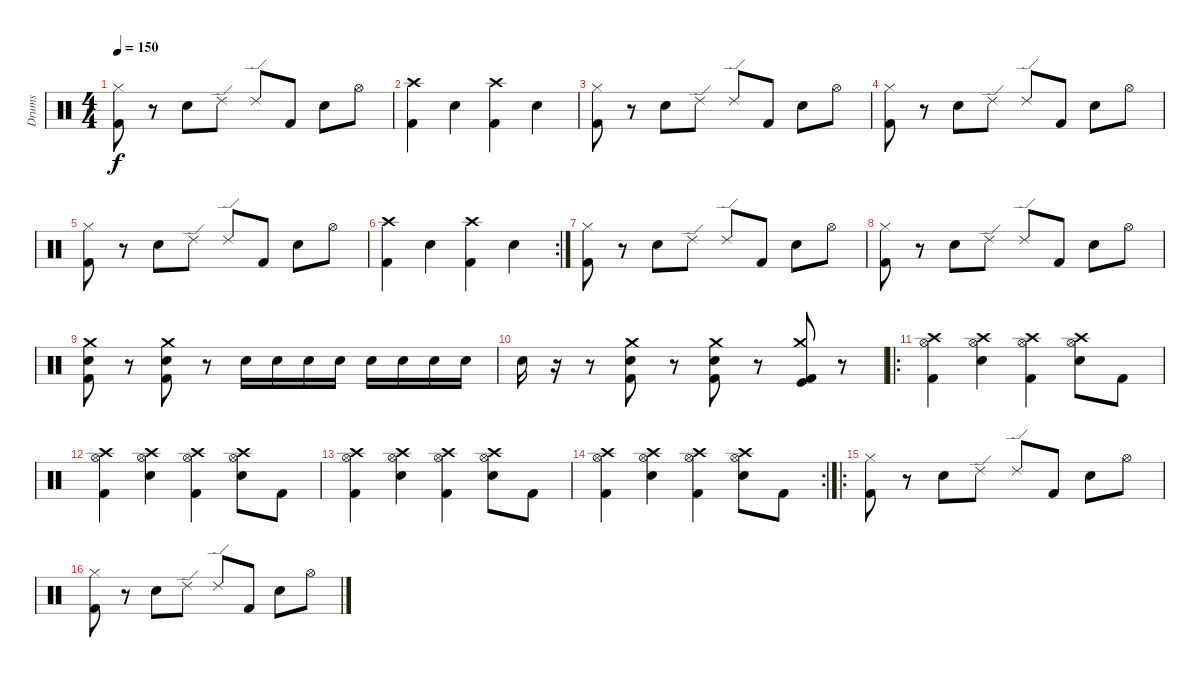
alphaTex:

\track ("Drums" "Drums") {instrument percussion}
\staff {score}
\articulation defaults
\ts (4 4)
\tempo 150
\clef neutral
\ks c
("Hi-Hat (closed)" "Kick (hit) 2").8{dy f} r.8 "Electric Snare (hit)".8 "Ride (edge) 2".8 "Ride (edge) 2".8 "Kick (hit) 2".8 "Electric Snare (hit)".8 "Hi-Hat (open)".8 |
("Crash high (hit)" "Kick (hit) 2").4 "Electric Snare (hit)".4 ("Crash high (hit)" "Kick (hit) 2").4 "Electric Snare (hit)".4 |
("Hi-Hat (closed)" "Kick (hit) 2").8 r.8 "Electric Snare (hit)".8 "Ride (edge) 2".8 "Ride (edge) 2".8 "Kick (hit) 2".8 "Electric Snare (hit)".8 "Hi-Hat (open)".8 |
("Hi-Hat (closed)" "Kick (hit) 2").8 r.8 "Electric Snare (hit)".8 "Ride (edge) 2".8 "Ride (edge) 2".8 "Kick (hit) 2".8 "Electric Snare (hit)".8 "Hi-Hat (open)".8 |
("Hi-Hat (closed)" "Kick (hit) 2").8 r.8 "Electric Snare (hit)".8 "Ride (edge) 2".8 "Ride (edge) 2".8 "Kick (hit) 2".8 "Electric Snare (hit)".8 "Hi-Hat (open)".8 |
\rc 2
("Crash high (hit)" "Kick (hit) 2").4 "Electric Snare (hit)".4 ("Crash high (hit)" "Kick (hit) 2").4 "Electric Snare (hit)".4 |
("Hi-Hat (closed)" "Kick (hit) 2").8 r.8 "Electric Snare (hit)".8 "Ride (edge) 2".8 "Ride (edge) 2".8 "Kick (hit) 2".8 "Electric Snare (hit)".8 "Hi-Hat (open)".8 |
("Hi-Hat (closed)" "Kick (hit) 2").8 r.8 "Electric Snare (hit)".8 "Ride (edge) 2".8 "Ride (edge) 2".8 "Kick (hit) 2".8 "Electric Snare (hit)".8 "Hi-Hat (open)".8 |
("Crash medium (hit)" "Kick (hit) 2" "Electric Snare (hit)").8 r.8 ("Crash medium (hit)" "Kick (hit) 2" "Electric Snare (hit)").8 r.8 "Electric Snare (hit)".16 "Electric Snare (hit)".16 "Electric Snare (hit)".16 "Electric Snare (hit)".16 "Electric Snare (hit)".16 "Electric Snare (hit)".16 "Electric Snare (hit)".16 "Electric Snare (hit)".16 |
"Electric Snare (hit)".16 r.16 r.8 ("Crash medium (hit)" "Kick (hit) 2" "Electric Snare (hit)").8 r.8 ("Crash medium (hit)" "Kick (hit) 2" "Electric Snare (hit)").8 r.8 ("Crash medium (hit)" "Kick (hit) 2" "Kick (hit)").8 r.8 |
\ro
("Crash high (hit)" "Kick (hit) 2" "Hi-Hat (open)").4 ("Crash high (hit)" "Electric Snare (hit)" "Hi-Hat (open)").4 ("Crash high (hit)" "Kick (hit) 2" "Hi-Hat (open)").4 ("Crash high (hit)" "Electric Snare (hit)" "Hi-Hat (open)").8 "Kick (hit) 2".8 |
("Crash high (hit)" "Kick (hit) 2" "Hi-Hat (open)").4 ("Crash high (hit)" "Electric Snare (hit)" "Hi-Hat (open)").4 ("Crash high (hit)" "Kick (hit) 2" "Hi-Hat (open)").4 ("Crash high (hit)" "Electric Snare (hit)" "Hi-Hat (open)").8 "Kick (hit) 2".8 |
("Crash high (hit)" "Kick (hit) 2" "Hi-Hat (open)").4 ("Crash high (hit)" "Electric Snare (hit)" "Hi-Hat (open)").4 ("Crash high (hit)" "Kick (hit) 2" "Hi-Hat (open)").4 ("Crash high (hit)" "Electric Snare (hit)" "Hi-Hat (open)").8 "Kick (hit) 2".8 |
\rc 2
("Crash high (hit)" "Kick (hit) 2" "Hi-Hat (open)").4 ("Crash high (hit)" "Electric Snare (hit)" "Hi-Hat (open)").4 ("Crash high (hit)" "Kick (hit) 2" "Hi-Hat (open)").4 ("Crash high (hit)" "Electric Snare (hit)" "Hi-Hat (open)").8 "Kick (hit) 2".8 |
\ro
("Hi-Hat (closed)" "Kick (hit) 2").8 r.8 "Electric Snare (hit)".8 "Ride (edge) 2".8 "Ride (edge) 2".8 "Kick (hit) 2".8 "Electric Snare (hit)".8 "Hi-Hat (open)".8 |
("Hi-Hat (closed)" "Kick (hit) 2").8 r.8 "Electric Snare (hit)".8 "Ride (edge) 2".8 "Ride (edge) 2".8 "Kick (hit) 2".8 "Electric Snare (hit)".8 "Hi-Hat (open)".8
